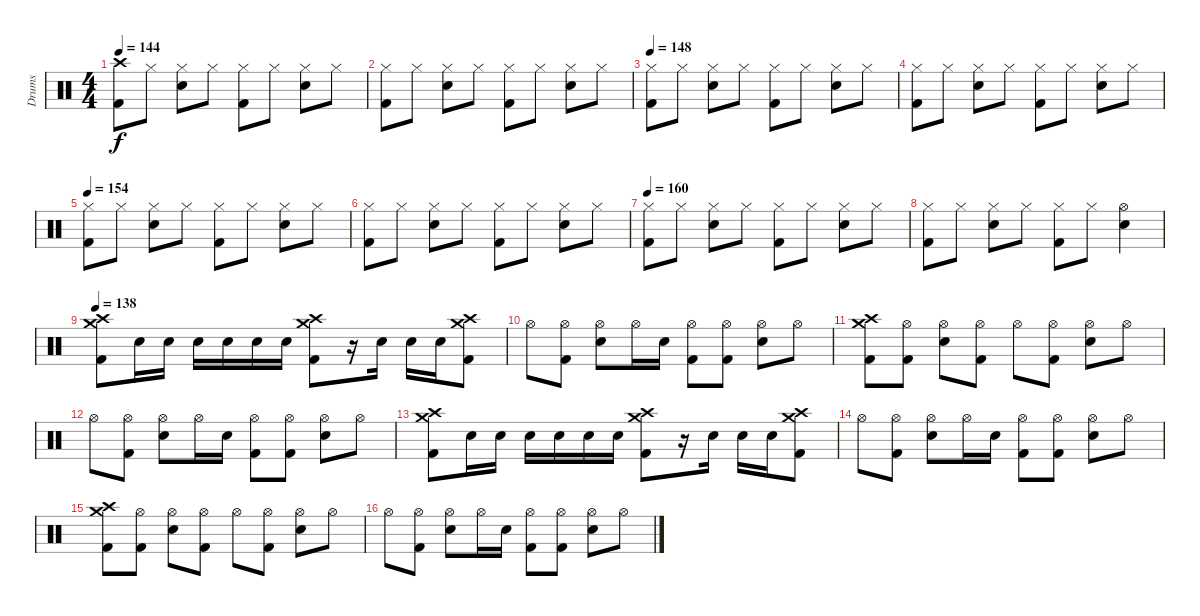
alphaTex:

\track ("Drums" "Drums") {instrument percussion}
\staff {score}
\articulation defaults
\ts (4 4)
\tempo 144
\clef neutral
\ks c
("Crash high (hit)" "Kick (hit) 2").8{dy f} "Hi-Hat (closed)".8 ("Hi-Hat (closed)" "Electric Snare (hit)").8 "Hi-Hat (closed)".8 ("Hi-Hat (closed)" "Kick (hit) 2").8 "Hi-Hat (closed)".8 ("Hi-Hat (closed)" "Electric Snare (hit)").8 "Hi-Hat (closed)".8 |
("Hi-Hat (closed)" "Kick (hit) 2").8 "Hi-Hat (closed)".8 ("Hi-Hat (closed)" "Electric Snare (hit)").8 "Hi-Hat (closed)".8 ("Hi-Hat (closed)" "Kick (hit) 2").8 "Hi-Hat (closed)".8 ("Hi-Hat (closed)" "Electric Snare (hit)").8 "Hi-Hat (closed)".8 |
\tempo 148
("Hi-Hat (closed)" "Kick (hit) 2").8 "Hi-Hat (closed)".8 ("Hi-Hat (closed)" "Electric Snare (hit)").8 "Hi-Hat (closed)".8 ("Hi-Hat (closed)" "Kick (hit) 2").8 "Hi-Hat (closed)".8 ("Hi-Hat (closed)" "Electric Snare (hit)").8 "Hi-Hat (closed)".8 |
("Hi-Hat (closed)" "Kick (hit) 2").8 "Hi-Hat (closed)".8 ("Hi-Hat (closed)" "Electric Snare (hit)").8 "Hi-Hat (closed)".8 ("Hi-Hat (closed)" "Kick (hit) 2").8 "Hi-Hat (closed)".8 ("Hi-Hat (closed)" "Electric Snare (hit)").8 "Hi-Hat (closed)".8 |
\tempo 154
("Hi-Hat (closed)" "Kick (hit) 2").8 "Hi-Hat (closed)".8 ("Hi-Hat (closed)" "Electric Snare (hit)").8 "Hi-Hat (closed)".8 ("Hi-Hat (closed)" "Kick (hit) 2").8 "Hi-Hat (closed)".8 ("Hi-Hat (closed)" "Electric Snare (hit)").8 "Hi-Hat (closed)".8 |
("Hi-Hat (closed)" "Kick (hit) 2").8 "Hi-Hat (closed)".8 ("Hi-Hat (closed)" "Electric Snare (hit)").8 "Hi-Hat (closed)".8 ("Hi-Hat (closed)" "Kick (hit) 2").8 "Hi-Hat (closed)".8 ("Hi-Hat (closed)" "Electric Snare (hit)").8 "Hi-Hat (closed)".8 |
\tempo 160
("Hi-Hat (closed)" "Kick (hit) 2").8 "Hi-Hat (closed)".8 ("Hi-Hat (closed)" "Electric Snare (hit)").8 "Hi-Hat (closed)".8 ("Hi-Hat (closed)" "Kick (hit) 2").8 "Hi-Hat (closed)".8 ("Hi-Hat (closed)" "Electric Snare (hit)").8 "Hi-Hat (closed)".8 |
("Hi-Hat (closed)" "Kick (hit) 2").8 "Hi-Hat (closed)".8 ("Hi-Hat (closed)" "Electric Snare (hit)").8 "Hi-Hat (closed)".8 ("Hi-Hat (closed)" "Kick (hit) 2").8 "Hi-Hat (closed)".8 ("Hi-Hat (open)" "Electric Snare (hit)").4 |
\tempo 138
("Crash medium (hit)" "Crash high (hit)" "Kick (hit) 2").8 "Electric Snare (hit)".16 "Electric Snare (hit)".16 "Electric Snare (hit)".16 "Electric Snare (hit)".16 "Electric Snare (hit)".16 "Electric Snare (hit)".16 ("Crash medium (hit)" "Crash high (hit)" "Kick (hit) 2").8 r.16 "Electric Snare (hit)".16 "Electric Snare (hit)".16 "Electric Snare (hit)".16 ("Crash medium (hit)" "Crash high (hit)" "Kick (hit) 2").8 |
"Hi-Hat (open)".8 ("Hi-Hat (open)" "Kick (hit) 2").8 ("Hi-Hat (open)" "Electric Snare (hit)").8 "Hi-Hat (open)".16 "Electric Snare (hit)".16 ("Hi-Hat (open)" "Kick (hit) 2").8 ("Hi-Hat (open)" "Kick (hit) 2").8 ("Hi-Hat (open)" "Electric Snare (hit)").8 "Hi-Hat (open)".8 |
("Crash medium (hit)" "Crash high (hit)" "Kick (hit) 2").8 ("Hi-Hat (open)" "Kick (hit) 2").8 ("Hi-Hat (open)" "Electric Snare (hit)").8 ("Hi-Hat (open)" "Kick (hit) 2").8 "Hi-Hat (open)".8 ("Hi-Hat (open)" "Kick (hit) 2").8 ("Hi-Hat (open)" "Electric Snare (hit)").8 "Hi-Hat (open)".8 |
"Hi-Hat (open)".8 ("Hi-Hat (open)" "Kick (hit) 2").8 ("Hi-Hat (open)" "Electric Snare (hit)").8 "Hi-Hat (open)".16 "Electric Snare (hit)".16 ("Hi-Hat (open)" "Kick (hit) 2").8 ("Hi-Hat (open)" "Kick (hit) 2").8 ("Hi-Hat (open)" "Electric Snare (hit)").8 "Hi-Hat (open)".8 |
("Crash medium (hit)" "Crash high (hit)" "Kick (hit) 2").8 "Electric Snare (hit)".16 "Electric Snare (hit)".16 "Electric Snare (hit)".16 "Electric Snare (hit)".16 "Electric Snare (hit)".16 "Electric Snare (hit)".16 ("Crash medium (hit)" "Crash high (hit)" "Kick (hit) 2").8 r.16 "Electric Snare (hit)".16 "Electric Snare (hit)".16 "Electric Snare (hit)".16 ("Crash medium (hit)" "Crash high (hit)" "Kick (hit) 2").8 |
"Hi-Hat (open)".8 ("Hi-Hat (open)" "Kick (hit) 2").8 ("Hi-Hat (open)" "Electric Snare (hit)").8 "Hi-Hat (open)".16 "Electric Snare (hit)".16 ("Hi-Hat (open)" "Kick (hit) 2").8 ("Hi-Hat (open)" "Kick (hit) 2").8 ("Hi-Hat (open)" "Electric Snare (hit)").8 "Hi-Hat (open)".8 |
("Crash medium (hit)" "Crash high (hit)" "Kick (hit) 2").8 ("Hi-Hat (open)" "Kick (hit) 2").8 ("Hi-Hat (open)" "Electric Snare (hit)").8 ("Hi-Hat (open)" "Kick (hit) 2").8 "Hi-Hat (open)".8 ("Hi-Hat (open)" "Kick (hit) 2").8 ("Hi-Hat (open)" "Electric Snare (hit)").8 "Hi-Hat (open)".8 |
"Hi-Hat (open)".8 ("Hi-Hat (open)" "Kick (hit) 2").8 ("Hi-Hat (open)" "Electric Snare (hit)").8 "Hi-Hat (open)".16 "Electric Snare (hit)".16 ("Hi-Hat (open)" "Kick (hit) 2").8 ("Hi-Hat (open)" "Kick (hit) 2").8 ("Hi-Hat (open)" "Electric Snare (hit)").8 "Hi-Hat (open)".8
